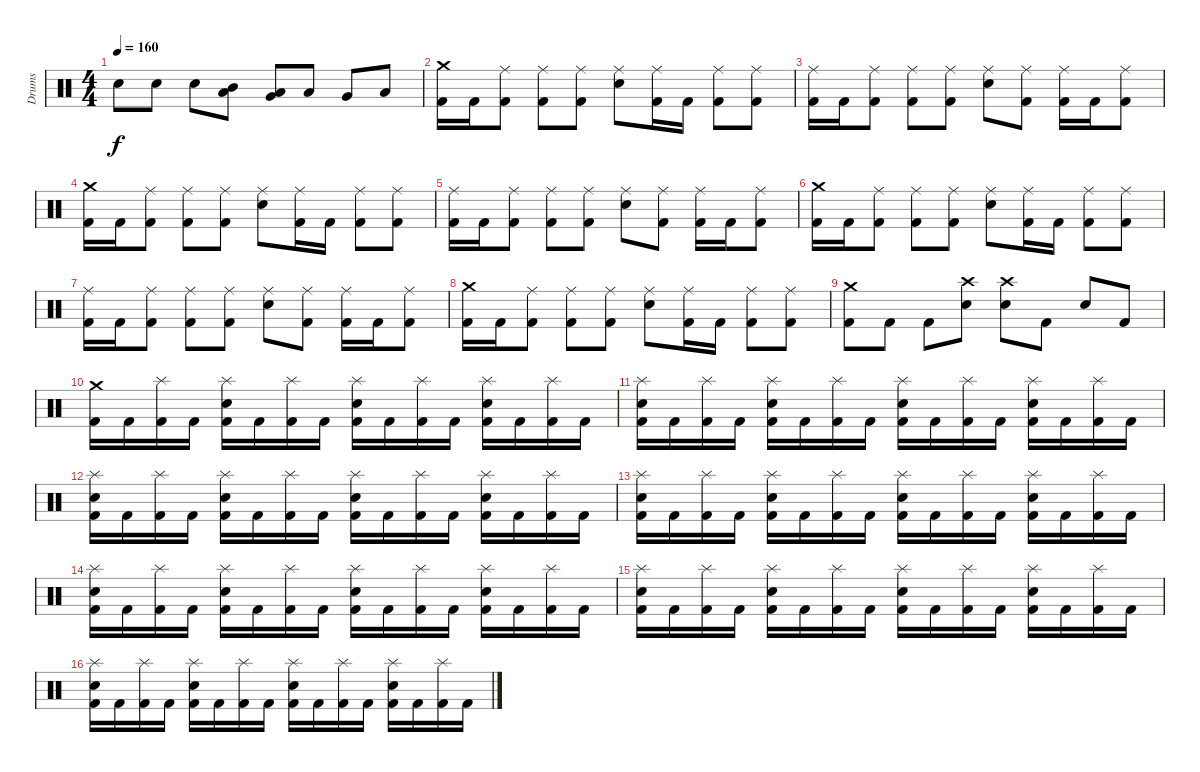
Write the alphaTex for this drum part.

\track ("Drums" "Drums") {instrument percussion}
\staff {score}
\articulation defaults
\ts (4 4)
\tempo 160
\clef neutral
\ks c "Electric Snare (hit)".8{dy f} "Electric Snare (hit)".8 "Electric Snare (hit)".8
("Mid Tom (hit)" "Low Tom (hit)").8 ("Very Low Tom (hit)" "Low Floor Tom (hit)").8 "Low Tom (hit)".8 "Very Low Tom (hit)".8 "Low Floor Tom (hit)".8 |
("Crash medium (hit)" "Kick (hit) 2").16 "Kick (hit) 2".16 ("Ride (middle)" "Kick (hit) 2").8 ("Ride (middle)" "Kick (hit) 2").8 ("Ride (middle)" "Kick (hit) 2").8 ("Ride (middle)" "Electric Snare (hit)").8 ("Ride (middle)" "Kick (hit) 2").16 "Kick (hit) 2".16 ("Ride (middle)" "Kick (hit) 2").8 ("Ride (middle)" "Kick (hit) 2").8 |
("Ride (middle)" "Kick (hit) 2").16 "Kick (hit) 2".16 ("Ride (middle)" "Kick (hit) 2").8 ("Ride (middle)" "Kick (hit) 2").8 ("Ride (middle)" "Kick (hit) 2").8 ("Ride (middle)" "Electric Snare (hit)").8 ("Ride (middle)" "Kick (hit) 2").8 ("Ride (middle)" "Kick (hit) 2").16 "Kick (hit) 2".16 ("Ride (middle)" "Kick (hit) 2").8 |
("Crash medium (hit)" "Kick (hit) 2").16 "Kick (hit) 2".16 ("Ride (middle)" "Kick (hit) 2").8 ("Ride (middle)" "Kick (hit) 2").8 ("Ride (middle)" "Kick (hit) 2").8 ("Ride (middle)" "Electric Snare (hit)").8 ("Ride (middle)" "Kick (hit) 2").16 "Kick (hit) 2".16 ("Ride (middle)" "Kick (hit) 2").8 ("Ride (middle)" "Kick (hit) 2").8 |
("Ride (middle)" "Kick (hit) 2").16 "Kick (hit) 2".16 ("Ride (middle)" "Kick (hit) 2").8 ("Ride (middle)" "Kick (hit) 2").8 ("Ride (middle)" "Kick (hit) 2").8 ("Ride (middle)" "Electric Snare (hit)").8 ("Ride (middle)" "Kick (hit) 2").8 ("Ride (middle)" "Kick (hit) 2").16 "Kick (hit) 2".16 ("Ride (middle)" "Kick (hit) 2").8 |
("Crash medium (hit)" "Kick (hit) 2").16 "Kick (hit) 2".16 ("Ride (middle)" "Kick (hit) 2").8 ("Ride (middle)" "Kick (hit) 2").8 ("Ride (middle)" "Kick (hit) 2").8 ("Ride (middle)" "Electric Snare (hit)").8 ("Ride (middle)" "Kick (hit) 2").16 "Kick (hit) 2".16 ("Ride (middle)" "Kick (hit) 2").8 ("Ride (middle)" "Kick (hit) 2").8 |
("Ride (middle)" "Kick (hit) 2").16 "Kick (hit) 2".16 ("Ride (middle)" "Kick (hit) 2").8 ("Ride (middle)" "Kick (hit) 2").8 ("Ride (middle)" "Kick (hit) 2").8 ("Ride (middle)" "Electric Snare (hit)").8 ("Ride (middle)" "Kick (hit) 2").8 ("Ride (middle)" "Kick (hit) 2").16 "Kick (hit) 2".16 ("Ride (middle)" "Kick (hit) 2").8 |
("Crash medium (hit)" "Kick (hit) 2").16 "Kick (hit) 2".16 ("Ride (middle)" "Kick (hit) 2").8 ("Ride (middle)" "Kick (hit) 2").8 ("Ride (middle)" "Kick (hit) 2").8 ("Ride (middle)" "Electric Snare (hit)").8 ("Ride (middle)" "Kick (hit) 2").16 "Kick (hit) 2".16 ("Ride (middle)" "Kick (hit) 2").8 ("Ride (middle)" "Kick (hit) 2").8 |
("Crash medium (hit)" "Kick (hit) 2").8 "Kick (hit) 2".8 "Kick (hit) 2".8 ("Crash high (hit)" "Electric Snare (hit)").8 ("Crash high (hit)" "Electric Snare (hit)").8 "Kick (hit) 2".8 "Electric Snare (hit)".8 "Kick (hit) 2".8 |
("Crash medium (hit)" "Kick (hit) 2").16 "Kick (hit) 2".16 ("Splash (hit)" "Kick (hit) 2").16 "Kick (hit) 2".16 ("Splash (hit)" "Electric Snare (hit)" "Kick (hit) 2").16 "Kick (hit) 2".16 ("Splash (hit)" "Kick (hit) 2").16 "Kick (hit) 2".16 ("Splash (hit)" "Electric Snare (hit)" "Kick (hit) 2").16 "Kick (hit) 2".16 ("Splash (hit)" "Kick (hit) 2").16 "Kick (hit) 2".16 ("Splash (hit)" "Electric Snare (hit)" "Kick (hit) 2").16 "Kick (hit) 2".16 ("Splash (hit)" "Kick (hit) 2").16 "Kick (hit) 2".16 |
("Splash (hit)" "Electric Snare (hit)" "Kick (hit) 2").16 "Kick (hit) 2".16 ("Splash (hit)" "Kick (hit) 2").16 "Kick (hit) 2".16 ("Splash (hit)" "Electric Snare (hit)" "Kick (hit) 2").16 "Kick (hit) 2".16 ("Splash (hit)" "Kick (hit) 2").16 "Kick (hit) 2".16 ("Splash (hit)" "Electric Snare (hit)" "Kick (hit) 2").16 "Kick (hit) 2".16 ("Splash (hit)" "Kick (hit) 2").16 "Kick (hit) 2".16 ("Splash (hit)" "Electric Snare (hit)" "Kick (hit) 2").16 "Kick (hit) 2".16 ("Splash (hit)" "Kick (hit) 2").16 "Kick (hit) 2".16 |
("Splash (hit)" "Electric Snare (hit)" "Kick (hit) 2").16 "Kick (hit) 2".16 ("Splash (hit)" "Kick (hit) 2").16 "Kick (hit) 2".16 ("Splash (hit)" "Electric Snare (hit)" "Kick (hit) 2").16 "Kick (hit) 2".16 ("Splash (hit)" "Kick (hit) 2").16 "Kick (hit) 2".16 ("Splash (hit)" "Electric Snare (hit)" "Kick (hit) 2").16 "Kick (hit) 2".16 ("Splash (hit)" "Kick (hit) 2").16 "Kick (hit) 2".16 ("Splash (hit)" "Electric Snare (hit)" "Kick (hit) 2").16 "Kick (hit) 2".16 ("Splash (hit)" "Kick (hit) 2").16 "Kick (hit) 2".16 |
("Splash (hit)" "Electric Snare (hit)" "Kick (hit) 2").16 "Kick (hit) 2".16 ("Splash (hit)" "Kick (hit) 2").16 "Kick (hit) 2".16 ("Splash (hit)" "Electric Snare (hit)" "Kick (hit) 2").16 "Kick (hit) 2".16 ("Splash (hit)" "Kick (hit) 2").16 "Kick (hit) 2".16 ("Splash (hit)" "Electric Snare (hit)" "Kick (hit) 2").16 "Kick (hit) 2".16 ("Splash (hit)" "Kick (hit) 2").16 "Kick (hit) 2".16 ("Splash (hit)" "Electric Snare (hit)" "Kick (hit) 2").16 "Kick (hit) 2".16 ("Splash (hit)" "Kick (hit) 2").16 "Kick (hit) 2".16 |
("Splash (hit)" "Electric Snare (hit)" "Kick (hit) 2").16 "Kick (hit) 2".16 ("Splash (hit)" "Kick (hit) 2").16 "Kick (hit) 2".16 ("Splash (hit)" "Electric Snare (hit)" "Kick (hit) 2").16 "Kick (hit) 2".16 ("Splash (hit)" "Kick (hit) 2").16 "Kick (hit) 2".16 ("Splash (hit)" "Electric Snare (hit)" "Kick (hit) 2").16 "Kick (hit) 2".16 ("Splash (hit)" "Kick (hit) 2").16 "Kick (hit) 2".16 ("Splash (hit)" "Electric Snare (hit)" "Kick (hit) 2").16 "Kick (hit) 2".16 ("Splash (hit)" "Kick (hit) 2").16 "Kick (hit) 2".16 |
("Splash (hit)" "Electric Snare (hit)" "Kick (hit) 2").16 "Kick (hit) 2".16 ("Splash (hit)" "Kick (hit) 2").16 "Kick (hit) 2".16 ("Splash (hit)" "Electric Snare (hit)" "Kick (hit) 2").16 "Kick (hit) 2".16 ("Splash (hit)" "Kick (hit) 2").16 "Kick (hit) 2".16 ("Splash (hit)" "Electric Snare (hit)" "Kick (hit) 2").16 "Kick (hit) 2".16 ("Splash (hit)" "Kick (hit) 2").16 "Kick (hit) 2".16 ("Splash (hit)" "Electric Snare (hit)" "Kick (hit) 2").16 "Kick (hit) 2".16 ("Splash (hit)" "Kick (hit) 2").16 "Kick (hit) 2".16 |
("Splash (hit)" "Electric Snare (hit)" "Kick (hit) 2").16 "Kick (hit) 2".16 ("Splash (hit)" "Kick (hit) 2").16 "Kick (hit) 2".16 ("Splash (hit)" "Electric Snare (hit)" "Kick (hit) 2").16 "Kick (hit) 2".16 ("Splash (hit)" "Kick (hit) 2").16 "Kick (hit) 2".16 ("Splash (hit)" "Electric Snare (hit)" "Kick (hit) 2").16 "Kick (hit) 2".16 ("Splash (hit)" "Kick (hit) 2").16 "Kick (hit) 2".16 ("Splash (hit)" "Electric Snare (hit)" "Kick (hit) 2").16 "Kick (hit) 2".16 ("Splash (hit)" "Kick (hit) 2").16 "Kick (hit) 2".16
